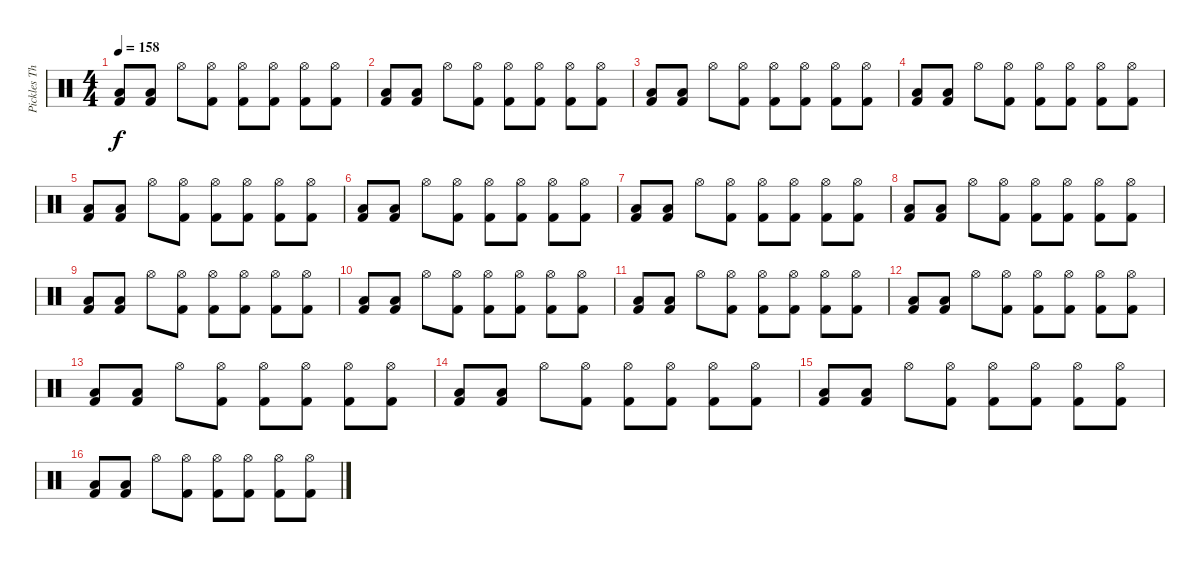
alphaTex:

\track ("Pickles The Drummer" "Pickles Th") {instrument percussion}
\staff {score}
\articulation defaults
\ts (4 4)
\tempo 158
\clef neutral
\ks c
("Low Floor Tom (hit)" "Kick (hit) 2").8{dy f} ("Low Floor Tom (hit)" "Kick (hit) 2").8 "Hi-Hat (open)".8 ("Kick (hit) 2" "Hi-Hat (open)").8 ("Kick (hit) 2" "Hi-Hat (open)").8 ("Kick (hit) 2" "Hi-Hat (open)").8 ("Kick (hit) 2" "Hi-Hat (open)").8 ("Kick (hit) 2" "Hi-Hat (open)").8 |
("Low Floor Tom (hit)" "Kick (hit) 2").8 ("Low Floor Tom (hit)" "Kick (hit) 2").8 "Hi-Hat (open)".8 ("Kick (hit) 2" "Hi-Hat (open)").8 ("Kick (hit) 2" "Hi-Hat (open)").8 ("Kick (hit) 2" "Hi-Hat (open)").8 ("Kick (hit) 2" "Hi-Hat (open)").8 ("Kick (hit) 2" "Hi-Hat (open)").8 |
("Low Floor Tom (hit)" "Kick (hit) 2").8 ("Low Floor Tom (hit)" "Kick (hit) 2").8 "Hi-Hat (open)".8 ("Kick (hit) 2" "Hi-Hat (open)").8 ("Kick (hit) 2" "Hi-Hat (open)").8 ("Kick (hit) 2" "Hi-Hat (open)").8 ("Kick (hit) 2" "Hi-Hat (open)").8 ("Kick (hit) 2" "Hi-Hat (open)").8 |
("Low Floor Tom (hit)" "Kick (hit) 2").8 ("Low Floor Tom (hit)" "Kick (hit) 2").8 "Hi-Hat (open)".8 ("Kick (hit) 2" "Hi-Hat (open)").8 ("Kick (hit) 2" "Hi-Hat (open)").8 ("Kick (hit) 2" "Hi-Hat (open)").8 ("Kick (hit) 2" "Hi-Hat (open)").8 ("Kick (hit) 2" "Hi-Hat (open)").8 |
("Low Floor Tom (hit)" "Kick (hit) 2").8 ("Low Floor Tom (hit)" "Kick (hit) 2").8 "Hi-Hat (open)".8 ("Kick (hit) 2" "Hi-Hat (open)").8 ("Kick (hit) 2" "Hi-Hat (open)").8 ("Kick (hit) 2" "Hi-Hat (open)").8 ("Kick (hit) 2" "Hi-Hat (open)").8 ("Kick (hit) 2" "Hi-Hat (open)").8 |
("Low Floor Tom (hit)" "Kick (hit) 2").8 ("Low Floor Tom (hit)" "Kick (hit) 2").8 "Hi-Hat (open)".8 ("Kick (hit) 2" "Hi-Hat (open)").8 ("Kick (hit) 2" "Hi-Hat (open)").8 ("Kick (hit) 2" "Hi-Hat (open)").8 ("Kick (hit) 2" "Hi-Hat (open)").8 ("Kick (hit) 2" "Hi-Hat (open)").8 |
("Low Floor Tom (hit)" "Kick (hit) 2").8 ("Low Floor Tom (hit)" "Kick (hit) 2").8 "Hi-Hat (open)".8 ("Kick (hit) 2" "Hi-Hat (open)").8 ("Kick (hit) 2" "Hi-Hat (open)").8 ("Kick (hit) 2" "Hi-Hat (open)").8 ("Kick (hit) 2" "Hi-Hat (open)").8 ("Kick (hit) 2" "Hi-Hat (open)").8 |
("Low Floor Tom (hit)" "Kick (hit) 2").8 ("Low Floor Tom (hit)" "Kick (hit) 2").8 "Hi-Hat (open)".8 ("Kick (hit) 2" "Hi-Hat (open)").8 ("Kick (hit) 2" "Hi-Hat (open)").8 ("Kick (hit) 2" "Hi-Hat (open)").8 ("Kick (hit) 2" "Hi-Hat (open)").8 ("Kick (hit) 2" "Hi-Hat (open)").8 |
("Low Floor Tom (hit)" "Kick (hit) 2").8 ("Low Floor Tom (hit)" "Kick (hit) 2").8 "Hi-Hat (open)".8 ("Kick (hit) 2" "Hi-Hat (open)").8 ("Kick (hit) 2" "Hi-Hat (open)").8 ("Kick (hit) 2" "Hi-Hat (open)").8 ("Kick (hit) 2" "Hi-Hat (open)").8 ("Kick (hit) 2" "Hi-Hat (open)").8 |
("Low Floor Tom (hit)" "Kick (hit) 2").8 ("Low Floor Tom (hit)" "Kick (hit) 2").8 "Hi-Hat (open)".8 ("Kick (hit) 2" "Hi-Hat (open)").8 ("Kick (hit) 2" "Hi-Hat (open)").8 ("Kick (hit) 2" "Hi-Hat (open)").8 ("Kick (hit) 2" "Hi-Hat (open)").8 ("Kick (hit) 2" "Hi-Hat (open)").8 |
("Low Floor Tom (hit)" "Kick (hit) 2").8 ("Low Floor Tom (hit)" "Kick (hit) 2").8 "Hi-Hat (open)".8 ("Kick (hit) 2" "Hi-Hat (open)").8 ("Kick (hit) 2" "Hi-Hat (open)").8 ("Kick (hit) 2" "Hi-Hat (open)").8 ("Kick (hit) 2" "Hi-Hat (open)").8 ("Kick (hit) 2" "Hi-Hat (open)").8 |
("Low Floor Tom (hit)" "Kick (hit) 2").8 ("Low Floor Tom (hit)" "Kick (hit) 2").8 "Hi-Hat (open)".8 ("Kick (hit) 2" "Hi-Hat (open)").8 ("Kick (hit) 2" "Hi-Hat (open)").8 ("Kick (hit) 2" "Hi-Hat (open)").8 ("Kick (hit) 2" "Hi-Hat (open)").8 ("Kick (hit) 2" "Hi-Hat (open)").8 |
("Low Floor Tom (hit)" "Kick (hit) 2").8 ("Low Floor Tom (hit)" "Kick (hit) 2").8 "Hi-Hat (open)".8 ("Kick (hit) 2" "Hi-Hat (open)").8 ("Kick (hit) 2" "Hi-Hat (open)").8 ("Kick (hit) 2" "Hi-Hat (open)").8 ("Kick (hit) 2" "Hi-Hat (open)").8 ("Kick (hit) 2" "Hi-Hat (open)").8 |
("Low Floor Tom (hit)" "Kick (hit) 2").8 ("Low Floor Tom (hit)" "Kick (hit) 2").8 "Hi-Hat (open)".8 ("Kick (hit) 2" "Hi-Hat (open)").8 ("Kick (hit) 2" "Hi-Hat (open)").8 ("Kick (hit) 2" "Hi-Hat (open)").8 ("Kick (hit) 2" "Hi-Hat (open)").8 ("Kick (hit) 2" "Hi-Hat (open)").8 |
("Low Floor Tom (hit)" "Kick (hit) 2").8 ("Low Floor Tom (hit)" "Kick (hit) 2").8 "Hi-Hat (open)".8 ("Kick (hit) 2" "Hi-Hat (open)").8 ("Kick (hit) 2" "Hi-Hat (open)").8 ("Kick (hit) 2" "Hi-Hat (open)").8 ("Kick (hit) 2" "Hi-Hat (open)").8 ("Kick (hit) 2" "Hi-Hat (open)").8 |
("Low Floor Tom (hit)" "Kick (hit) 2").8 ("Low Floor Tom (hit)" "Kick (hit) 2").8 "Hi-Hat (open)".8 ("Kick (hit) 2" "Hi-Hat (open)").8 ("Kick (hit) 2" "Hi-Hat (open)").8 ("Kick (hit) 2" "Hi-Hat (open)").8 ("Kick (hit) 2" "Hi-Hat (open)").8 ("Kick (hit) 2" "Hi-Hat (open)").8
